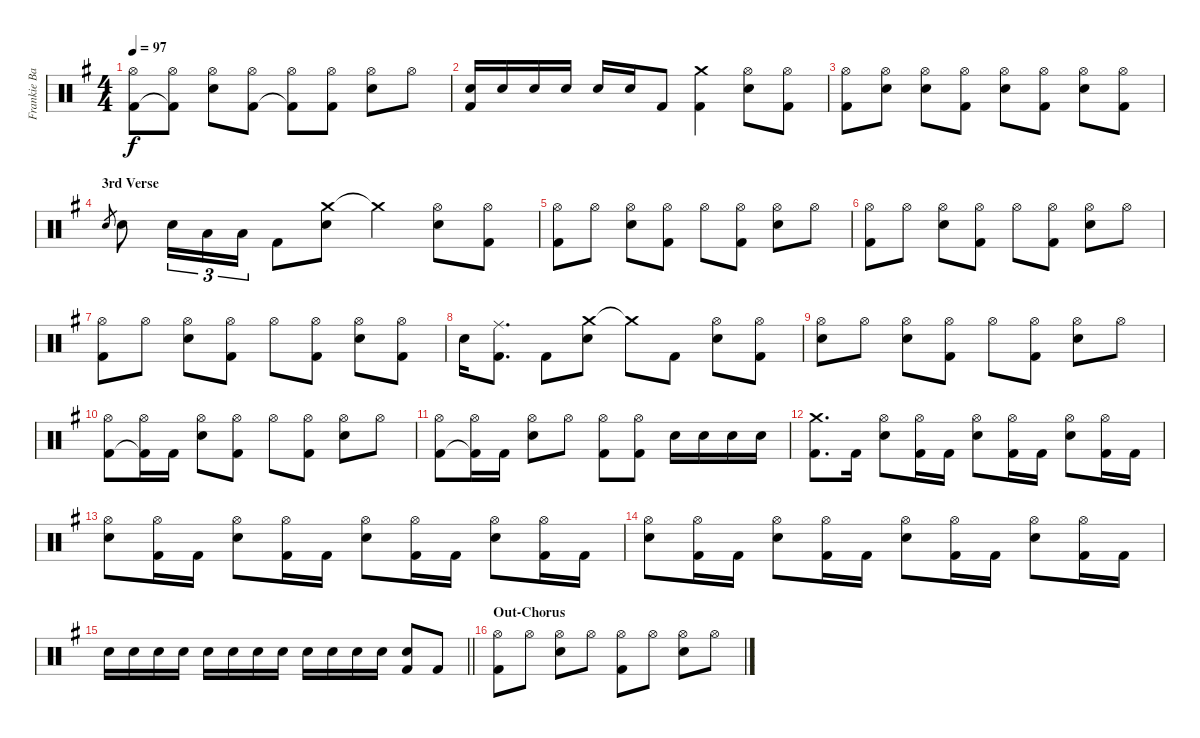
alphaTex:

\track ("Frankie Banali" "Frankie Ba") {instrument percussion}
\staff {score}
\articulation defaults
\ts (4 4)
\tempo 97
\clef neutral
\ks g
("Hi-Hat (open)" "Kick (hit) 2").8{dy f} ("Hi-Hat (open)" "Kick (hit) 2"{t}).8 ("Hi-Hat (open)" "Snare (hit) 2").8 ("Hi-Hat (open)" "Kick (hit) 2").8 ("Hi-Hat (open)" "Kick (hit) 2"{t}).8 ("Hi-Hat (open)" "Kick (hit) 2").8 ("Hi-Hat (open)" "Snare (hit) 2").8 "Hi-Hat (open)".8 |
("Snare (hit) 2" "Kick (hit) 2").16 "Snare (hit) 2".16 "Snare (hit) 2".16 "Snare (hit) 2".16 "Snare (hit) 2".16 "Snare (hit) 2".16 "Kick (hit) 2".8 ("Crash medium (hit)" "Kick (hit) 2").4 ("Hi-Hat (open)" "Snare (hit) 2").8 ("Hi-Hat (open)" "Kick (hit) 2").8 |
("Hi-Hat (open)" "Kick (hit) 2").8 ("Hi-Hat (open)" "Snare (hit) 2").8 ("Hi-Hat (open)" "Snare (hit) 2").8 ("Hi-Hat (open)" "Kick (hit) 2").8 ("Hi-Hat (open)" "Snare (hit) 2").8 ("Hi-Hat (open)" "Kick (hit) 2").8 ("Hi-Hat (open)" "Snare (hit) 2").8 ("Hi-Hat (open)" "Kick (hit) 2").8 |
\section ("" "3rd Verse")
"Snare (hit) 2".8{gr} "Snare (hit) 2".8 "Snare (hit) 2".16{tu (3 2)} "Low Tom (hit)".16{tu (3 2)} "Low Floor Tom (hit)".16{tu (3 2)} "Kick (hit) 2".8 ("Crash medium (hit)" "Snare (hit) 2").8 "Crash medium (hit)"{t}.4 ("Hi-Hat (open)" "Snare (hit) 2").8 ("Hi-Hat (open)" "Kick (hit) 2").8 |
("Hi-Hat (open)" "Kick (hit) 2").8 "Hi-Hat (open)".8 ("Hi-Hat (open)" "Snare (hit) 2").8 ("Hi-Hat (open)" "Kick (hit) 2").8 "Hi-Hat (open)".8 ("Hi-Hat (open)" "Kick (hit) 2").8 ("Hi-Hat (open)" "Snare (hit) 2").8 "Hi-Hat (open)".8 |
("Hi-Hat (open)" "Kick (hit) 2").8 "Hi-Hat (open)".8 ("Hi-Hat (open)" "Snare (hit) 2").8 ("Hi-Hat (open)" "Kick (hit) 2").8 "Hi-Hat (open)".8 ("Hi-Hat (open)" "Kick (hit) 2").8 ("Hi-Hat (open)" "Snare (hit) 2").8 "Hi-Hat (open)".8 |
("Hi-Hat (open)" "Kick (hit) 2").8 "Hi-Hat (open)".8 ("Hi-Hat (open)" "Snare (hit) 2").8 ("Hi-Hat (open)" "Kick (hit) 2").8 "Hi-Hat (open)".8 ("Hi-Hat (open)" "Kick (hit) 2").8 ("Hi-Hat (open)" "Snare (hit) 2").8 ("Hi-Hat (open)" "Kick (hit) 2").8 |
"Snare (hit) 2".16 ("Ride (middle)" "Kick (hit) 2").8{d} "Kick (hit) 2".8 ("Crash medium (hit)" "Snare (hit) 2").8 "Crash medium (hit)"{t}.8 "Kick (hit) 2".8 ("Hi-Hat (open)" "Snare (hit) 2").8 ("Hi-Hat (open)" "Kick (hit) 2").8 |
("Hi-Hat (open)" "Snare (hit) 2").8 "Hi-Hat (open)".8 ("Hi-Hat (open)" "Snare (hit) 2").8 ("Hi-Hat (open)" "Kick (hit) 2").8 "Hi-Hat (open)".8 ("Hi-Hat (open)" "Kick (hit) 2").8 ("Hi-Hat (open)" "Snare (hit) 2").8 "Hi-Hat (open)".8 |
("Hi-Hat (open)" "Kick (hit) 2").8 ("Hi-Hat (open)" "Kick (hit) 2"{t}).16 "Kick (hit) 2".16 ("Hi-Hat (open)" "Snare (hit) 2").8 ("Hi-Hat (open)" "Kick (hit) 2").8 "Hi-Hat (open)".8 ("Hi-Hat (open)" "Kick (hit) 2").8 ("Hi-Hat (open)" "Snare (hit) 2").8 "Hi-Hat (open)".8 |
("Hi-Hat (open)" "Kick (hit) 2").8 ("Hi-Hat (open)" "Kick (hit) 2"{t}).16 "Kick (hit) 2".16 ("Hi-Hat (open)" "Snare (hit) 2").8 "Hi-Hat (open)".8 ("Hi-Hat (open)" "Kick (hit) 2").8 ("Hi-Hat (open)" "Kick (hit) 2").8 "Snare (hit) 2".16 "Snare (hit) 2".16 "Snare (hit) 2".16 "Snare (hit) 2".16 |
("Crash medium (hit)" "Kick (hit) 2").8{d} "Kick (hit) 2".16 ("Hi-Hat (open)" "Snare (hit) 2").8 ("Hi-Hat (open)" "Kick (hit) 2").16 "Kick (hit) 2".16 ("Hi-Hat (open)" "Snare (hit) 2").8 ("Hi-Hat (open)" "Kick (hit) 2").16 "Kick (hit) 2".16 ("Hi-Hat (open)" "Snare (hit) 2").8 ("Hi-Hat (open)" "Kick (hit) 2").16 "Kick (hit) 2".16 |
("Hi-Hat (open)" "Snare (hit) 2").8 ("Hi-Hat (open)" "Kick (hit) 2").16 "Kick (hit) 2".16 ("Hi-Hat (open)" "Snare (hit) 2").8 ("Hi-Hat (open)" "Kick (hit) 2").16 "Kick (hit) 2".16 ("Hi-Hat (open)" "Snare (hit) 2").8 ("Hi-Hat (open)" "Kick (hit) 2").16 "Kick (hit) 2".16 ("Hi-Hat (open)" "Snare (hit) 2").8 ("Hi-Hat (open)" "Kick (hit) 2").16 "Kick (hit) 2".16 |
("Hi-Hat (open)" "Snare (hit) 2").8 ("Hi-Hat (open)" "Kick (hit) 2").16 "Kick (hit) 2".16 ("Hi-Hat (open)" "Snare (hit) 2").8 ("Hi-Hat (open)" "Kick (hit) 2").16 "Kick (hit) 2".16 ("Hi-Hat (open)" "Snare (hit) 2").8 ("Hi-Hat (open)" "Kick (hit) 2").16 "Kick (hit) 2".16 ("Hi-Hat (open)" "Snare (hit) 2").8 ("Hi-Hat (open)" "Kick (hit) 2").16 "Kick (hit) 2".16 |
\barLineRight lightlight "Snare (hit) 2".16 "Snare (hit) 2".16 "Snare (hit) 2".16 "Snare (hit) 2".16 "Snare (hit) 2".16 "Snare (hit) 2".16 "Snare (hit) 2".16 "Snare (hit) 2".16 "Snare (hit) 2".16 "Snare (hit) 2".16 "Snare (hit) 2".16 "Snare (hit) 2".16
("Snare (hit) 2" "Kick (hit) 2").8 "Kick (hit) 2".8 |
\section ("" "Out-Chorus")
("Hi-Hat (open)" "Kick (hit) 2").8 "Hi-Hat (open)".8 ("Hi-Hat (open)" "Snare (hit) 2").8 "Hi-Hat (open)".8 ("Hi-Hat (open)" "Kick (hit) 2").8 "Hi-Hat (open)".8 ("Hi-Hat (open)" "Snare (hit) 2").8 "Hi-Hat (open)".8
